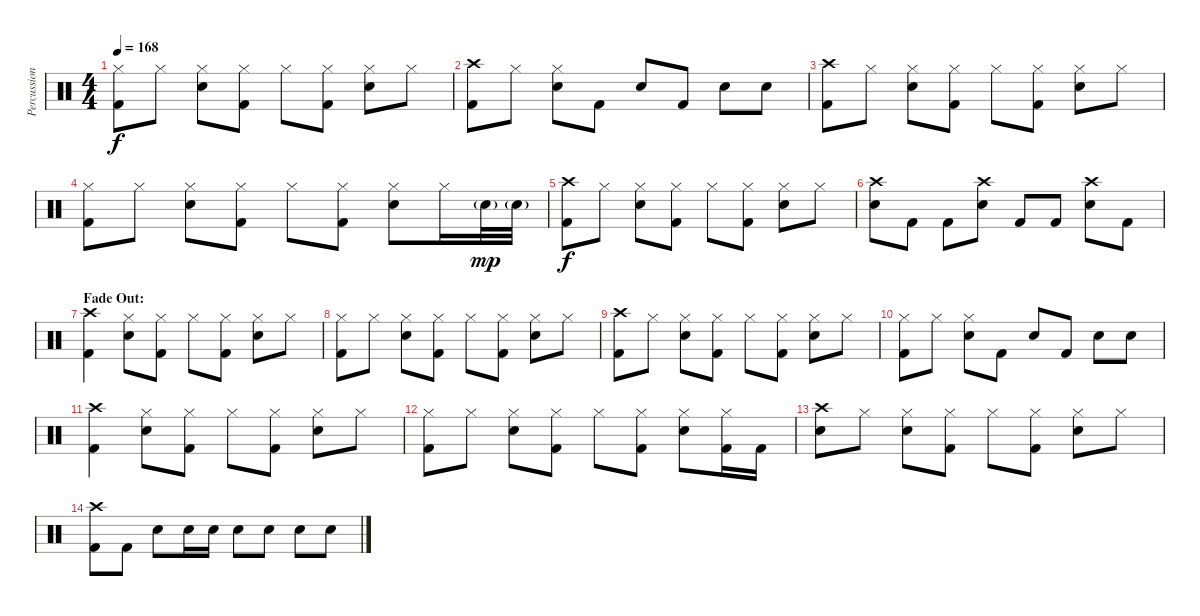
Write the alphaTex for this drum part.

\track ("Percussion" "Percussion") {instrument percussion}
\staff {score}
\articulation defaults
\ts (4 4)
\tempo 168
\clef neutral
\ks c
("Hi-Hat (closed)" "Kick (hit) 2").8{dy f} "Hi-Hat (closed)".8 ("Hi-Hat (closed)" "Snare (hit) 2").8 ("Hi-Hat (closed)" "Kick (hit) 2").8 "Hi-Hat (closed)".8 ("Hi-Hat (closed)" "Kick (hit) 2").8 ("Hi-Hat (closed)" "Snare (hit) 2").8 "Hi-Hat (closed)".8 |
("Crash high (hit)" "Kick (hit) 2").8 "Hi-Hat (closed)".8 ("Hi-Hat (closed)" "Snare (hit) 2").8 "Kick (hit) 2".8 "Snare (hit) 2".8 "Kick (hit) 2".8 "Snare (hit) 2".8 "Snare (hit) 2".8 |
("Crash high (hit)" "Kick (hit) 2").8 "Hi-Hat (closed)".8 ("Hi-Hat (closed)" "Snare (hit) 2").8 ("Hi-Hat (closed)" "Kick (hit) 2").8 "Hi-Hat (closed)".8 ("Hi-Hat (closed)" "Kick (hit) 2").8 ("Hi-Hat (closed)" "Snare (hit) 2").8 "Hi-Hat (closed)".8 |
("Hi-Hat (closed)" "Kick (hit) 2").8 "Hi-Hat (closed)".8 ("Hi-Hat (closed)" "Snare (hit) 2").8 ("Hi-Hat (closed)" "Kick (hit) 2").8 "Hi-Hat (closed)".8 ("Hi-Hat (closed)" "Kick (hit) 2").8 ("Hi-Hat (closed)" "Snare (hit) 2").8 "Hi-Hat (closed)".16 "Snare (hit) 2"{g}.32{dy mp} "Snare (hit) 2"{g}.32 |
("Crash high (hit)" "Kick (hit) 2").8{dy f} "Hi-Hat (closed)".8 ("Hi-Hat (closed)" "Snare (hit) 2").8 ("Hi-Hat (closed)" "Kick (hit) 2").8 "Hi-Hat (closed)".8 ("Hi-Hat (closed)" "Kick (hit) 2").8 ("Hi-Hat (closed)" "Snare (hit) 2").8 "Hi-Hat (closed)".8 |
("Crash high (hit)" "Snare (hit) 2").8 "Kick (hit) 2".8 "Kick (hit) 2".8 ("Crash high (hit)" "Snare (hit) 2").8 "Kick (hit) 2".8 "Kick (hit) 2".8 ("Crash high (hit)" "Snare (hit) 2").8 "Kick (hit) 2".8 |
\section ("" "Fade Out:")
("Crash high (hit)" "Kick (hit) 2").4{volume 7} ("Hi-Hat (closed)" "Snare (hit) 2").8 ("Hi-Hat (closed)" "Kick (hit) 2").8 "Hi-Hat (closed)".8 ("Hi-Hat (closed)" "Kick (hit) 2").8 ("Hi-Hat (closed)" "Snare (hit) 2").8 "Hi-Hat (closed)".8 |
("Hi-Hat (closed)" "Kick (hit) 2").8 "Hi-Hat (closed)".8 ("Hi-Hat (closed)" "Snare (hit) 2").8 ("Hi-Hat (closed)" "Kick (hit) 2").8 "Hi-Hat (closed)".8 ("Hi-Hat (closed)" "Kick (hit) 2").8 ("Hi-Hat (closed)" "Snare (hit) 2").8 "Hi-Hat (closed)".8 |
("Crash high (hit)" "Kick (hit) 2").8 "Hi-Hat (closed)".8 ("Hi-Hat (closed)" "Snare (hit) 2").8 ("Hi-Hat (closed)" "Kick (hit) 2").8 "Hi-Hat (closed)".8 ("Hi-Hat (closed)" "Kick (hit) 2").8 ("Hi-Hat (closed)" "Snare (hit) 2").8 "Hi-Hat (closed)".8 |
("Hi-Hat (closed)" "Kick (hit) 2").8 "Hi-Hat (closed)".8 ("Hi-Hat (closed)" "Snare (hit) 2").8 "Kick (hit) 2".8 "Snare (hit) 2".8 "Kick (hit) 2".8 "Snare (hit) 2".8 "Snare (hit) 2".8 |
("Crash high (hit)" "Kick (hit) 2").4{volume 1} ("Hi-Hat (closed)" "Snare (hit) 2").8 ("Hi-Hat (closed)" "Kick (hit) 2").8 "Hi-Hat (closed)".8 ("Hi-Hat (closed)" "Kick (hit) 2").8 ("Hi-Hat (closed)" "Snare (hit) 2").8 "Hi-Hat (closed)".8 |
("Hi-Hat (closed)" "Kick (hit) 2").8 "Hi-Hat (closed)".8 ("Hi-Hat (closed)" "Snare (hit) 2").8 ("Hi-Hat (closed)" "Kick (hit) 2").8 "Hi-Hat (closed)".8 ("Hi-Hat (closed)" "Kick (hit) 2").8 ("Hi-Hat (closed)" "Snare (hit) 2").8 ("Hi-Hat (closed)" "Kick (hit) 2").16 "Kick (hit) 2".16 |
("Crash high (hit)" "Snare (hit) 2").8 "Hi-Hat (closed)".8 ("Hi-Hat (closed)" "Snare (hit) 2").8 ("Hi-Hat (closed)" "Kick (hit) 2").8 "Hi-Hat (closed)".8 ("Hi-Hat (closed)" "Kick (hit) 2").8 ("Hi-Hat (closed)" "Snare (hit) 2").8 "Hi-Hat (closed)".8 |
("Crash high (hit)" "Kick (hit) 2").8 "Kick (hit) 2".8 "Snare (hit) 2".8 "Snare (hit) 2".16 "Snare (hit) 2".16 "Snare (hit) 2".8 "Snare (hit) 2".8 "Snare (hit) 2".8 "Snare (hit) 2".8
